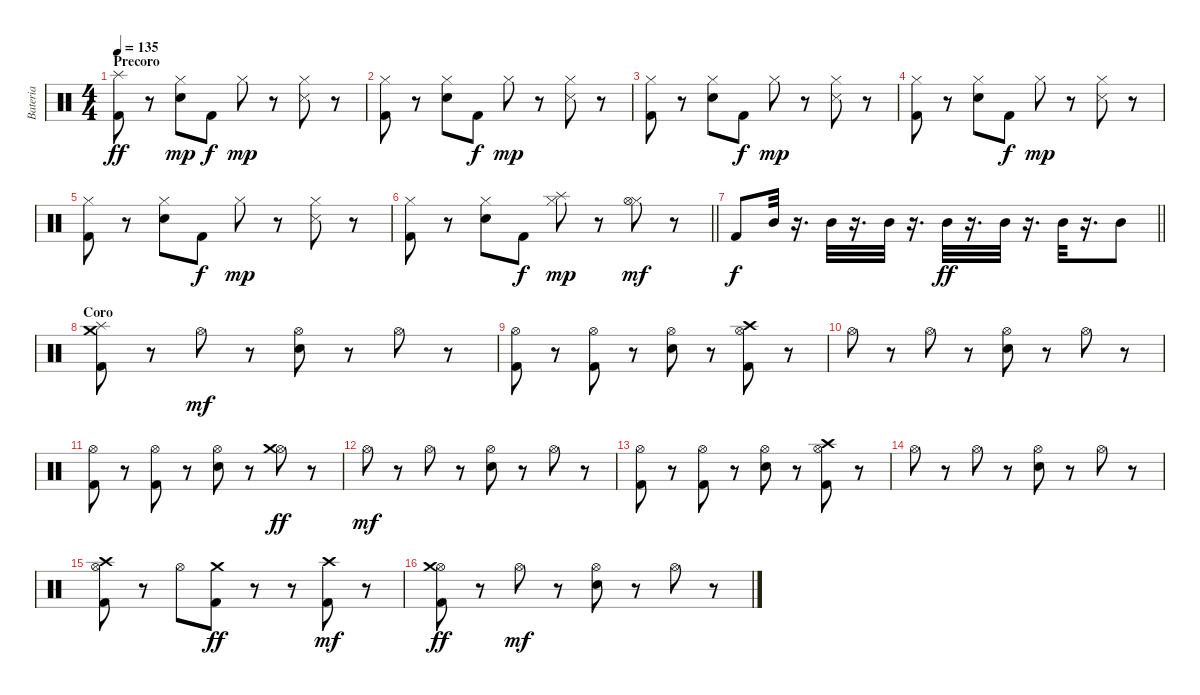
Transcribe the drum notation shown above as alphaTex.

\track ("Bateria" "Bateria") {instrument percussion}
\staff {score}
\articulation defaults
\ts (4 4)
\section ("" "Precoro")
\tempo 135
\clef neutral
\ks c
("Splash (hit)" "Kick (hit) 2").8{dy ff} r.8 ("Hi-Hat (closed)" "Snare (hit) 2").8{dy mp} "Kick (hit) 2".8{dy f} "Hi-Hat (closed)".8{dy mp} r.8 ("Hi-Hat (closed)" "Snare (side stick) 3").8 r.8 |
("Hi-Hat (closed)" "Kick (hit) 2").8 r.8 ("Hi-Hat (closed)" "Snare (hit) 2").8 "Kick (hit) 2".8{dy f} "Hi-Hat (closed)".8{dy mp} r.8 ("Hi-Hat (closed)" "Snare (side stick) 3").8 r.8 |
("Hi-Hat (closed)" "Kick (hit) 2").8 r.8 ("Hi-Hat (closed)" "Snare (hit) 2").8 "Kick (hit) 2".8{dy f} "Hi-Hat (closed)".8{dy mp} r.8 ("Hi-Hat (closed)" "Snare (side stick) 3").8 r.8 |
("Hi-Hat (closed)" "Kick (hit) 2").8 r.8 ("Hi-Hat (closed)" "Snare (hit) 2").8 "Kick (hit) 2".8{dy f} "Hi-Hat (closed)".8{dy mp} r.8 ("Hi-Hat (closed)" "Snare (side stick) 3").8 r.8 |
("Hi-Hat (closed)" "Kick (hit) 2").8 r.8 ("Hi-Hat (closed)" "Snare (hit) 2").8 "Kick (hit) 2".8{dy f} "Hi-Hat (closed)".8{dy mp} r.8 ("Hi-Hat (closed)" "Snare (side stick) 3").8 r.8 |
\barLineRight lightlight
("Hi-Hat (closed)" "Kick (hit) 2").8 r.8 ("Hi-Hat (closed)" "Snare (hit) 2").8 "Kick (hit) 2".8{dy f} ("Hi-Hat (closed)" "Splash (hit)").8{dy mp} r.8 ("Hi-Hat (closed)" "Hi-Hat (open)").8{dy mf} r.8 |
\barLineRight lightlight "Kick (hit) 2".8{dy f} "Mid Tom (hit)".32
r.16{d} "Mid Tom (hit)".32 r.16{d} "Mid Tom (hit)".32 r.16{d} "Mid Tom (hit)".32{dy ff} r.16{d} "Mid Tom (hit)".32 r.16{d} "Mid Tom (hit)".32 r.16{d} "Mid Tom (hit)".8 |
\section ("" "Coro")
("Splash (hit)" "Crash medium (hit)" "Kick (hit) 2").8 r.8 "Hi-Hat (open)".8{dy mf} r.8 ("Hi-Hat (open)" "Electric Snare (hit)").8 r.8 "Hi-Hat (open)".8 r.8 |
("Hi-Hat (open)" "Kick (hit) 2").8 r.8 ("Hi-Hat (open)" "Kick (hit) 2").8 r.8 ("Hi-Hat (open)" "Electric Snare (hit)").8 r.8 ("Hi-Hat (open)" "Crash high (hit)" "Kick (hit) 2").8 r.8 |
"Hi-Hat (open)".8 r.8 "Hi-Hat (open)".8 r.8 ("Hi-Hat (open)" "Electric Snare (hit)").8 r.8 "Hi-Hat (open)".8 r.8 |
("Hi-Hat (open)" "Kick (hit) 2").8 r.8 ("Hi-Hat (open)" "Kick (hit) 2").8 r.8 ("Hi-Hat (open)" "Electric Snare (hit)").8 r.8 ("Hi-Hat (open)" "Crash medium (hit)").8{dy ff} r.8 |
"Hi-Hat (open)".8{dy mf} r.8 "Hi-Hat (open)".8 r.8 ("Hi-Hat (open)" "Electric Snare (hit)").8 r.8 "Hi-Hat (open)".8 r.8 |
("Hi-Hat (open)" "Kick (hit) 2").8 r.8 ("Hi-Hat (open)" "Kick (hit) 2").8 r.8 ("Hi-Hat (open)" "Electric Snare (hit)").8 r.8 ("Hi-Hat (open)" "Crash high (hit)" "Kick (hit) 2").8 r.8 |
"Hi-Hat (open)".8 r.8 "Hi-Hat (open)".8 r.8 ("Hi-Hat (open)" "Electric Snare (hit)").8 r.8 "Hi-Hat (open)".8 r.8 |
("Hi-Hat (open)" "Crash high (hit)" "Kick (hit) 2").8 r.8 "Hi-Hat (open)".8 ("Crash medium (hit)" "Kick (hit) 2").8{dy ff} r.8 r.8 ("Crash high (hit)" "Kick (hit) 2").8{dy mf} r.8 |
("Hi-Hat (open)" "Crash medium (hit)" "Kick (hit) 2").8{dy ff} r.8 "Hi-Hat (open)".8{dy mf} r.8 ("Hi-Hat (open)" "Electric Snare (hit)").8 r.8 "Hi-Hat (open)".8 r.8
